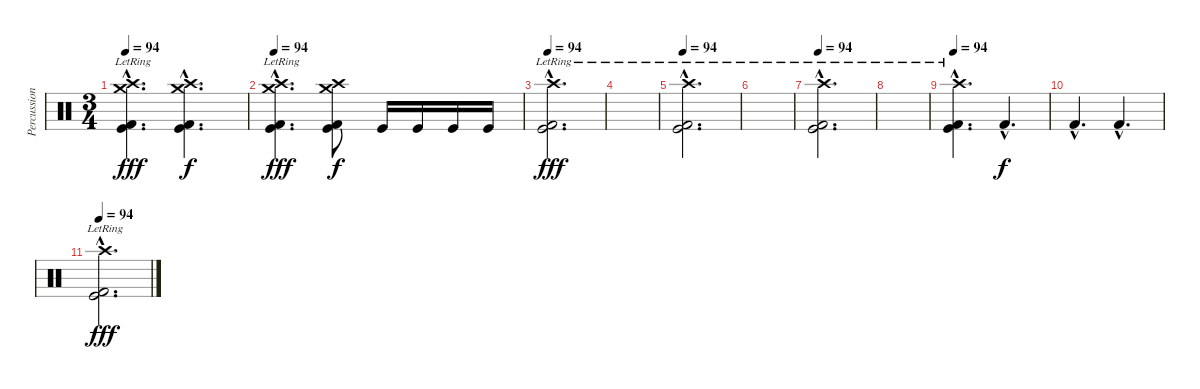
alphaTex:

\track ("Percussion" "Percussion") {instrument percussion}
\staff {score}
\articulation defaults
\ts (3 4)
\tempo 94
\clef neutral
\ks c
("Crash high (hit)"{hac} "Crash medium (hit)"{hac} "Kick (hit)"{hac} "Kick (hit) 2"{hac lr}).4{d dy fff} ("Crash high (hit)"{hac} "Crash medium (hit)"{hac} "Kick (hit)"{hac} "Kick (hit) 2"{hac}).4{d dy f} |
\tempo 94
("Crash high (hit)"{hac} "Crash medium (hit)"{hac} "Kick (hit)"{hac} "Kick (hit) 2"{hac lr}).4{d dy fff} ("Crash high (hit)" "Crash medium (hit)" "Kick (hit)" "Kick (hit) 2").8{dy f} "Kick (hit)".16 "Kick (hit)".16 "Kick (hit)".16 "Kick (hit)".16 |
\tempo 94
("Crash high (hit)"{hac} "Kick (hit)"{hac} "Kick (hit) 2"{hac lr}).2{d dy fff} |
|
\tempo 94
("Crash high (hit)"{hac} "Kick (hit)"{hac} "Kick (hit) 2"{hac lr}).2{d} |
|
\tempo 94
("Crash high (hit)"{hac} "Kick (hit)"{hac} "Kick (hit) 2"{hac lr}).2{d} |
|
\tempo 94
("Crash high (hit)"{hac} "Kick (hit)"{hac} "Kick (hit) 2"{hac lr}).4{d} "Kick (hit) 2"{hac}.4{d dy f} |
"Kick (hit) 2"{hac}.4{d} "Kick (hit) 2"{hac}.4{d} |
\tempo 94
("Crash high (hit)"{hac} "Kick (hit)"{hac} "Kick (hit) 2"{hac lr}).2{d dy fff}
